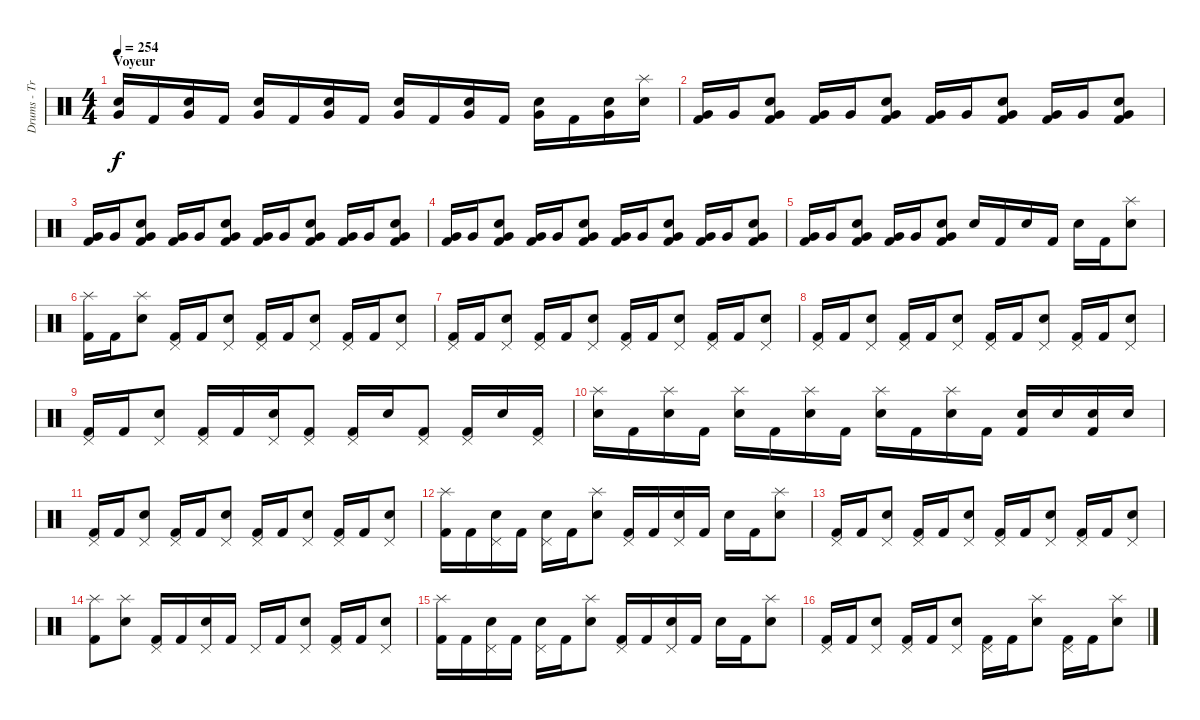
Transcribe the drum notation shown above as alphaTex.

\track ("Drums - Travis Barker" "Drums - Tr") {instrument percussion}
\staff {score}
\articulation defaults
\ts (4 4)
\section ("" "Voyeur")
\tempo 254
\clef neutral
\ks c
("Very Low Tom (hit)" "Electric Snare (hit)").16{dy f} "Kick (hit) 2".16 ("Very Low Tom (hit)" "Electric Snare (hit)").16 "Kick (hit) 2".16 ("Very Low Tom (hit)" "Electric Snare (hit)").16 "Kick (hit) 2".16 ("Very Low Tom (hit)" "Electric Snare (hit)").16 "Kick (hit) 2".16 ("Very Low Tom (hit)" "Electric Snare (hit)").16 "Kick (hit) 2".16 ("Very Low Tom (hit)" "Electric Snare (hit)").16 "Kick (hit) 2".16 ("Very Low Tom (hit)" "Electric Snare (hit)").16 "Kick (hit) 2".16 ("Very Low Tom (hit)" "Electric Snare (hit)").16 ("Splash (hit)" "Electric Snare (hit)").16 |
("Very Low Tom (hit)" "Kick (hit) 2").16 "Very Low Tom (hit)".16 ("Very Low Tom (hit)" "Electric Snare (hit)" "Kick (hit) 2").8 ("Very Low Tom (hit)" "Kick (hit) 2").16 "Very Low Tom (hit)".16 ("Very Low Tom (hit)" "Electric Snare (hit)" "Kick (hit) 2").8 ("Very Low Tom (hit)" "Kick (hit) 2").16 "Very Low Tom (hit)".16 ("Very Low Tom (hit)" "Electric Snare (hit)" "Kick (hit) 2").8 ("Very Low Tom (hit)" "Kick (hit) 2").16 "Very Low Tom (hit)".16 ("Very Low Tom (hit)" "Electric Snare (hit)" "Kick (hit) 2").8 |
("Very Low Tom (hit)" "Kick (hit) 2").16 "Very Low Tom (hit)".16 ("Very Low Tom (hit)" "Electric Snare (hit)" "Kick (hit) 2").8 ("Very Low Tom (hit)" "Kick (hit) 2").16 "Very Low Tom (hit)".16 ("Very Low Tom (hit)" "Electric Snare (hit)" "Kick (hit) 2").8 ("Very Low Tom (hit)" "Kick (hit) 2").16 "Very Low Tom (hit)".16 ("Very Low Tom (hit)" "Electric Snare (hit)" "Kick (hit) 2").8 ("Very Low Tom (hit)" "Kick (hit) 2").16 "Very Low Tom (hit)".16 ("Very Low Tom (hit)" "Electric Snare (hit)" "Kick (hit) 2").8 |
("Very Low Tom (hit)" "Kick (hit) 2").16 "Very Low Tom (hit)".16 ("Very Low Tom (hit)" "Electric Snare (hit)" "Kick (hit) 2").8 ("Very Low Tom (hit)" "Kick (hit) 2").16 "Very Low Tom (hit)".16 ("Very Low Tom (hit)" "Electric Snare (hit)" "Kick (hit) 2").8 ("Very Low Tom (hit)" "Kick (hit) 2").16 "Very Low Tom (hit)".16 ("Very Low Tom (hit)" "Electric Snare (hit)" "Kick (hit) 2").8 ("Very Low Tom (hit)" "Kick (hit) 2").16 "Very Low Tom (hit)".16 ("Very Low Tom (hit)" "Electric Snare (hit)" "Kick (hit) 2").8 |
("Very Low Tom (hit)" "Kick (hit) 2").16 "Very Low Tom (hit)".16 ("Very Low Tom (hit)" "Electric Snare (hit)" "Kick (hit) 2").8 ("Very Low Tom (hit)" "Kick (hit) 2").16 "Very Low Tom (hit)".16 ("Very Low Tom (hit)" "Electric Snare (hit)" "Kick (hit) 2").8 "Electric Snare (hit)".16 "Kick (hit) 2".16 "Electric Snare (hit)".16 "Kick (hit) 2".16 "Electric Snare (hit)".16 "Kick (hit) 2".16 ("Splash (hit)" "Electric Snare (hit)").8 |
("Splash (hit)" "Kick (hit) 2").16 "Kick (hit) 2".16 ("Splash (hit)" "Electric Snare (hit)").8 ("Pedal Hi-Hat (hit)" "Kick (hit) 2").16 "Kick (hit) 2".16 ("Pedal Hi-Hat (hit)" "Electric Snare (hit)").8 ("Pedal Hi-Hat (hit)" "Kick (hit) 2").16 "Kick (hit) 2".16 ("Pedal Hi-Hat (hit)" "Electric Snare (hit)").8 ("Pedal Hi-Hat (hit)" "Kick (hit) 2").16 "Kick (hit) 2".16 ("Pedal Hi-Hat (hit)" "Electric Snare (hit)").8 |
("Pedal Hi-Hat (hit)" "Kick (hit) 2").16 "Kick (hit) 2".16 ("Pedal Hi-Hat (hit)" "Electric Snare (hit)").8 ("Pedal Hi-Hat (hit)" "Kick (hit) 2").16 "Kick (hit) 2".16 ("Pedal Hi-Hat (hit)" "Electric Snare (hit)").8 ("Pedal Hi-Hat (hit)" "Kick (hit) 2").16 "Kick (hit) 2".16 ("Pedal Hi-Hat (hit)" "Electric Snare (hit)").8 ("Pedal Hi-Hat (hit)" "Kick (hit) 2").16 "Kick (hit) 2".16 ("Pedal Hi-Hat (hit)" "Electric Snare (hit)").8 |
("Pedal Hi-Hat (hit)" "Kick (hit) 2").16 "Kick (hit) 2".16 ("Pedal Hi-Hat (hit)" "Electric Snare (hit)").8 ("Pedal Hi-Hat (hit)" "Kick (hit) 2").16 "Kick (hit) 2".16 ("Pedal Hi-Hat (hit)" "Electric Snare (hit)").8 ("Pedal Hi-Hat (hit)" "Kick (hit) 2").16 "Kick (hit) 2".16 ("Pedal Hi-Hat (hit)" "Electric Snare (hit)").8 ("Pedal Hi-Hat (hit)" "Kick (hit) 2").16 "Kick (hit) 2".16 ("Pedal Hi-Hat (hit)" "Electric Snare (hit)").8 |
("Pedal Hi-Hat (hit)" "Kick (hit) 2").16 "Kick (hit) 2".16 ("Pedal Hi-Hat (hit)" "Electric Snare (hit)").8 ("Pedal Hi-Hat (hit)" "Kick (hit) 2").16 "Kick (hit) 2".16 ("Pedal Hi-Hat (hit)" "Electric Snare (hit)").16 ("Pedal Hi-Hat (hit)" "Kick (hit) 2").8 ("Pedal Hi-Hat (hit)" "Kick (hit) 2").16 "Electric Snare (hit)".16 ("Pedal Hi-Hat (hit)" "Kick (hit) 2").8 ("Pedal Hi-Hat (hit)" "Kick (hit) 2").16 "Electric Snare (hit)".16 ("Pedal Hi-Hat (hit)" "Kick (hit) 2").16 |
("Splash (hit)" "Electric Snare (hit)").16 "Kick (hit) 2".16 ("Splash (hit)" "Electric Snare (hit)").16 "Kick (hit) 2".16 ("Splash (hit)" "Electric Snare (hit)").16 "Kick (hit) 2".16 ("Splash (hit)" "Electric Snare (hit)").16 "Kick (hit) 2".16 ("Splash (hit)" "Electric Snare (hit)").16 "Kick (hit) 2".16 ("Splash (hit)" "Electric Snare (hit)").16 "Kick (hit) 2".16 ("Electric Snare (hit)" "Kick (hit) 2").16 "Electric Snare (hit)".16 ("Electric Snare (hit)" "Kick (hit) 2").16 "Electric Snare (hit)".16 |
("Pedal Hi-Hat (hit)" "Kick (hit) 2").16 "Kick (hit) 2".16 ("Pedal Hi-Hat (hit)" "Electric Snare (hit)").8 ("Pedal Hi-Hat (hit)" "Kick (hit) 2").16 "Kick (hit) 2".16 ("Pedal Hi-Hat (hit)" "Electric Snare (hit)").8 ("Pedal Hi-Hat (hit)" "Kick (hit) 2").16 "Kick (hit) 2".16 ("Pedal Hi-Hat (hit)" "Electric Snare (hit)").8 ("Pedal Hi-Hat (hit)" "Kick (hit) 2").16 "Kick (hit) 2".16 ("Pedal Hi-Hat (hit)" "Electric Snare (hit)").8 |
("Splash (hit)" "Kick (hit) 2").16 "Kick (hit) 2".16 ("Pedal Hi-Hat (hit)" "Electric Snare (hit)").16 "Kick (hit) 2".16 ("Pedal Hi-Hat (hit)" "Electric Snare (hit)").16 "Kick (hit) 2".16 ("Splash (hit)" "Electric Snare (hit)").8 ("Pedal Hi-Hat (hit)" "Kick (hit) 2").16 "Kick (hit) 2".16 ("Pedal Hi-Hat (hit)" "Electric Snare (hit)").16 "Kick (hit) 2".16 "Electric Snare (hit)".16 "Kick (hit) 2".16 ("Splash (hit)" "Electric Snare (hit)").8 |
("Pedal Hi-Hat (hit)" "Kick (hit) 2").16 "Kick (hit) 2".16 ("Pedal Hi-Hat (hit)" "Electric Snare (hit)").8 ("Pedal Hi-Hat (hit)" "Kick (hit) 2").16 "Kick (hit) 2".16 ("Pedal Hi-Hat (hit)" "Electric Snare (hit)").8 ("Pedal Hi-Hat (hit)" "Kick (hit) 2").16 "Kick (hit) 2".16 ("Pedal Hi-Hat (hit)" "Electric Snare (hit)").8 ("Pedal Hi-Hat (hit)" "Kick (hit) 2").16 "Kick (hit) 2".16 ("Pedal Hi-Hat (hit)" "Electric Snare (hit)").8 |
("Splash (hit)" "Kick (hit) 2").8 ("Splash (hit)" "Electric Snare (hit)").8 ("Pedal Hi-Hat (hit)" "Kick (hit) 2").16 "Kick (hit) 2".16 ("Pedal Hi-Hat (hit)" "Electric Snare (hit)").16 "Kick (hit) 2".16 "Pedal Hi-Hat (hit)".16 "Kick (hit) 2".16 ("Pedal Hi-Hat (hit)" "Electric Snare (hit)").8 ("Pedal Hi-Hat (hit)" "Kick (hit) 2").16 "Kick (hit) 2".16 ("Pedal Hi-Hat (hit)" "Electric Snare (hit)").8 |
("Splash (hit)" "Kick (hit) 2").16 "Kick (hit) 2".16 ("Pedal Hi-Hat (hit)" "Electric Snare (hit)").16 "Kick (hit) 2".16 ("Pedal Hi-Hat (hit)" "Electric Snare (hit)").16 "Kick (hit) 2".16 ("Splash (hit)" "Electric Snare (hit)").8 ("Pedal Hi-Hat (hit)" "Kick (hit) 2").16 "Kick (hit) 2".16 ("Pedal Hi-Hat (hit)" "Electric Snare (hit)").16 "Kick (hit) 2".16 "Electric Snare (hit)".16 "Kick (hit) 2".16 ("Splash (hit)" "Electric Snare (hit)").8 |
("Pedal Hi-Hat (hit)" "Kick (hit) 2").16 "Kick (hit) 2".16 ("Pedal Hi-Hat (hit)" "Electric Snare (hit)").8 ("Pedal Hi-Hat (hit)" "Kick (hit) 2").16 "Kick (hit) 2".16 ("Pedal Hi-Hat (hit)" "Electric Snare (hit)").8 ("Pedal Hi-Hat (hit)" "Kick (hit) 2").16 "Kick (hit) 2".16 ("Splash (hit)" "Electric Snare (hit)").8 ("Pedal Hi-Hat (hit)" "Kick (hit) 2").16 "Kick (hit) 2".16 ("Splash (hit)" "Electric Snare (hit)").8
